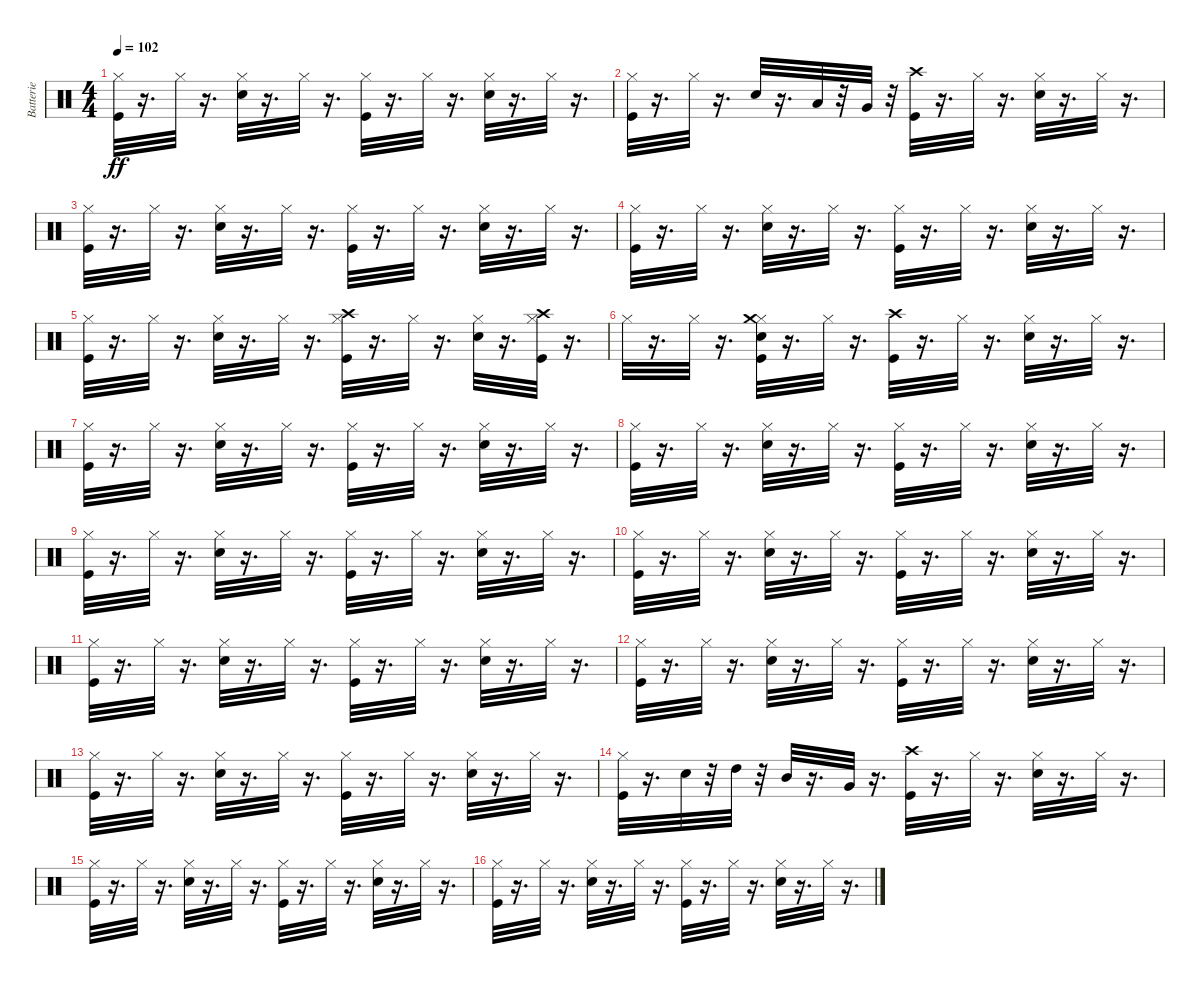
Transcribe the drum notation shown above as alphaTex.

\track ("Batterie" "Batterie") {instrument percussion}
\staff {score}
\articulation defaults
\ts (4 4)
\tempo 102
\clef neutral
\ks c
("Kick (hit)" "Hi-Hat (closed)").32{dy ff} r.16{d} "Hi-Hat (closed)".32 r.16{d} ("Hi-Hat (closed)" "Electric Snare (hit)").32 r.16{d} "Hi-Hat (closed)".32 r.16{d} ("Kick (hit)" "Hi-Hat (closed)").32 r.16{d} "Hi-Hat (closed)".32 r.16{d} ("Hi-Hat (closed)" "Electric Snare (hit)").32 r.16{d} "Hi-Hat (closed)".32 r.16{d} |
("Kick (hit)" "Hi-Hat (closed)").32 r.16{d} "Hi-Hat (closed)".32 r.16{d} "Electric Snare (hit)".32 r.16{d} "Low Tom (hit)".32 r.32 "Very Low Tom (hit)".32 r.32 ("Kick (hit)" "Crash high (hit)").32 r.16{d} "Hi-Hat (closed)".32 r.16{d} ("Hi-Hat (closed)" "Electric Snare (hit)").32 r.16{d} "Hi-Hat (closed)".32 r.16{d} |
("Kick (hit)" "Hi-Hat (closed)").32 r.16{d} "Hi-Hat (closed)".32 r.16{d} ("Hi-Hat (closed)" "Electric Snare (hit)").32 r.16{d} "Hi-Hat (closed)".32 r.16{d} ("Kick (hit)" "Hi-Hat (closed)").32 r.16{d} "Hi-Hat (closed)".32 r.16{d} ("Hi-Hat (closed)" "Electric Snare (hit)").32 r.16{d} "Hi-Hat (closed)".32 r.16{d} |
("Kick (hit)" "Hi-Hat (closed)").32 r.16{d} "Hi-Hat (closed)".32 r.16{d} ("Hi-Hat (closed)" "Electric Snare (hit)").32 r.16{d} "Hi-Hat (closed)".32 r.16{d} ("Kick (hit)" "Hi-Hat (closed)").32 r.16{d} "Hi-Hat (closed)".32 r.16{d} ("Hi-Hat (closed)" "Electric Snare (hit)").32 r.16{d} "Hi-Hat (closed)".32 r.16{d} |
("Kick (hit)" "Hi-Hat (closed)").32 r.16{d} "Hi-Hat (closed)".32 r.16{d} ("Hi-Hat (closed)" "Electric Snare (hit)").32 r.16{d} "Hi-Hat (closed)".32 r.16{d} ("Kick (hit)" "Hi-Hat (closed)" "Crash high (hit)").32 r.16{d} "Hi-Hat (closed)".32 r.16{d} ("Hi-Hat (closed)" "Electric Snare (hit)").32 r.16{d} ("Kick (hit)" "Hi-Hat (closed)" "Crash high (hit)").32 r.16{d} |
"Hi-Hat (closed)".32 r.16{d} "Hi-Hat (closed)".32 r.16{d} ("Kick (hit)" "Hi-Hat (closed)" "Crash medium (hit)" "Electric Snare (hit)").32 r.16{d} "Hi-Hat (closed)".32 r.16{d} ("Kick (hit)" "Crash high (hit)").32 r.16{d} "Hi-Hat (closed)".32 r.16{d} ("Hi-Hat (closed)" "Electric Snare (hit)").32 r.16{d} "Hi-Hat (closed)".32 r.16{d} |
("Kick (hit)" "Hi-Hat (closed)").32 r.16{d} "Hi-Hat (closed)".32 r.16{d} ("Hi-Hat (closed)" "Electric Snare (hit)").32 r.16{d} "Hi-Hat (closed)".32 r.16{d} ("Kick (hit)" "Hi-Hat (closed)").32 r.16{d} "Hi-Hat (closed)".32 r.16{d} ("Hi-Hat (closed)" "Electric Snare (hit)").32 r.16{d} "Hi-Hat (closed)".32 r.16{d} |
("Kick (hit)" "Hi-Hat (closed)").32 r.16{d} "Hi-Hat (closed)".32 r.16{d} ("Hi-Hat (closed)" "Electric Snare (hit)").32 r.16{d} "Hi-Hat (closed)".32 r.16{d} ("Kick (hit)" "Hi-Hat (closed)").32 r.16{d} "Hi-Hat (closed)".32 r.16{d} ("Hi-Hat (closed)" "Electric Snare (hit)").32 r.16{d} "Hi-Hat (closed)".32 r.16{d} |
("Kick (hit)" "Hi-Hat (closed)").32 r.16{d} "Hi-Hat (closed)".32 r.16{d} ("Hi-Hat (closed)" "Electric Snare (hit)").32 r.16{d} "Hi-Hat (closed)".32 r.16{d} ("Kick (hit)" "Hi-Hat (closed)").32 r.16{d} "Hi-Hat (closed)".32 r.16{d} ("Hi-Hat (closed)" "Electric Snare (hit)").32 r.16{d} "Hi-Hat (closed)".32 r.16{d} |
("Kick (hit)" "Hi-Hat (closed)").32 r.16{d} "Hi-Hat (closed)".32 r.16{d} ("Hi-Hat (closed)" "Electric Snare (hit)").32 r.16{d} "Hi-Hat (closed)".32 r.16{d} ("Kick (hit)" "Hi-Hat (closed)").32 r.16{d} "Hi-Hat (closed)".32 r.16{d} ("Hi-Hat (closed)" "Electric Snare (hit)").32 r.16{d} "Hi-Hat (closed)".32 r.16{d} |
("Kick (hit)" "Hi-Hat (closed)").32 r.16{d} "Hi-Hat (closed)".32 r.16{d} ("Hi-Hat (closed)" "Electric Snare (hit)").32 r.16{d} "Hi-Hat (closed)".32 r.16{d} ("Kick (hit)" "Hi-Hat (closed)").32 r.16{d} "Hi-Hat (closed)".32 r.16{d} ("Hi-Hat (closed)" "Electric Snare (hit)").32 r.16{d} "Hi-Hat (closed)".32 r.16{d} |
("Kick (hit)" "Hi-Hat (closed)").32 r.16{d} "Hi-Hat (closed)".32 r.16{d} ("Hi-Hat (closed)" "Electric Snare (hit)").32 r.16{d} "Hi-Hat (closed)".32 r.16{d} ("Kick (hit)" "Hi-Hat (closed)").32 r.16{d} "Hi-Hat (closed)".32 r.16{d} ("Hi-Hat (closed)" "Electric Snare (hit)").32 r.16{d} "Hi-Hat (closed)".32 r.16{d} |
("Kick (hit)" "Hi-Hat (closed)").32 r.16{d} "Hi-Hat (closed)".32 r.16{d} ("Hi-Hat (closed)" "Electric Snare (hit)").32 r.16{d} "Hi-Hat (closed)".32 r.16{d} ("Kick (hit)" "Hi-Hat (closed)").32 r.16{d} "Hi-Hat (closed)".32 r.16{d} ("Hi-Hat (closed)" "Electric Snare (hit)").32 r.16{d} "Hi-Hat (closed)".32 r.16{d} |
("Kick (hit)" "Hi-Hat (closed)").32 r.16{d} "Electric Snare (hit)".32 r.32 "High Tom (hit)".32 r.32 "Mid Tom (hit)".32 r.16{d} "Very Low Tom (hit)".32 r.16{d} ("Kick (hit)" "Crash high (hit)").32 r.16{d} "Hi-Hat (closed)".32 r.16{d} ("Hi-Hat (closed)" "Electric Snare (hit)").32 r.16{d} "Hi-Hat (closed)".32 r.16{d} |
("Kick (hit)" "Hi-Hat (closed)").32 r.16{d} "Hi-Hat (closed)".32 r.16{d} ("Hi-Hat (closed)" "Electric Snare (hit)").32 r.16{d} "Hi-Hat (closed)".32 r.16{d} ("Kick (hit)" "Hi-Hat (closed)").32 r.16{d} "Hi-Hat (closed)".32 r.16{d} ("Hi-Hat (closed)" "Electric Snare (hit)").32 r.16{d} "Hi-Hat (closed)".32 r.16{d} |
("Kick (hit)" "Hi-Hat (closed)").32 r.16{d} "Hi-Hat (closed)".32 r.16{d} ("Hi-Hat (closed)" "Electric Snare (hit)").32 r.16{d} "Hi-Hat (closed)".32 r.16{d} ("Kick (hit)" "Hi-Hat (closed)").32 r.16{d} "Hi-Hat (closed)".32 r.16{d} ("Hi-Hat (closed)" "Electric Snare (hit)").32 r.16{d} "Hi-Hat (closed)".32 r.16{d}
